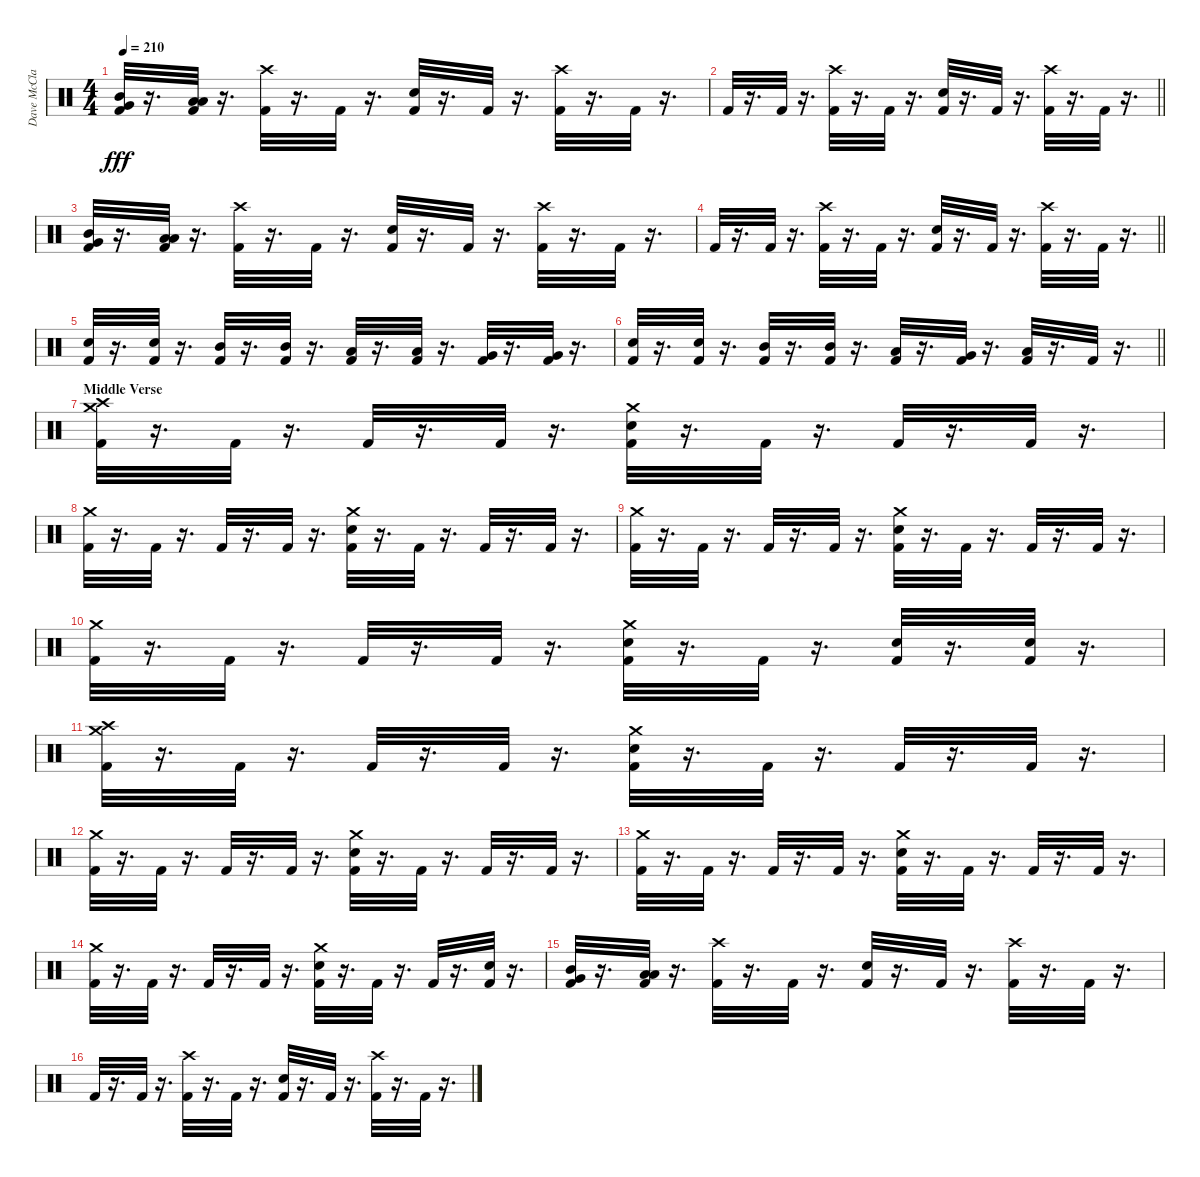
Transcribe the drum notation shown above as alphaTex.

\track ("Dave McClain" "Dave McCla") {instrument percussion}
\staff {score}
\articulation defaults
\ts (4 4)
\tempo 210
\clef neutral
\ks c
("Very Low Tom (hit)" "Mid Tom (hit)" "Kick (hit) 2").32{dy fff} r.16{d} ("Low Tom (hit)" "Low Floor Tom (hit)" "Kick (hit) 2").32 r.16{d} ("Kick (hit) 2" "Crash high (hit)").32 r.16{d} "Kick (hit) 2".32 r.16{d} ("Kick (hit) 2" "Snare (hit) 2").32 r.16{d} "Kick (hit) 2".32 r.16{d} ("Kick (hit) 2" "Crash high (hit)").32 r.16{d} "Kick (hit) 2".32 r.16{d} |
\barLineRight lightlight "Kick (hit) 2".32
r.16{d} "Kick (hit) 2".32 r.16{d} ("Kick (hit) 2" "Crash high (hit)").32 r.16{d} "Kick (hit) 2".32 r.16{d} ("Kick (hit) 2" "Snare (hit) 2").32 r.16{d} "Kick (hit) 2".32 r.16{d} ("Kick (hit) 2" "Crash high (hit)").32 r.16{d} "Kick (hit) 2".32 r.16{d} |
("Very Low Tom (hit)" "Mid Tom (hit)" "Kick (hit) 2").32 r.16{d} ("Kick (hit) 2" "Low Tom (hit)" "Low Floor Tom (hit)").32 r.16{d} ("Kick (hit) 2" "Crash high (hit)").32 r.16{d} "Kick (hit) 2".32 r.16{d} ("Kick (hit) 2" "Snare (hit) 2").32 r.16{d} "Kick (hit) 2".32 r.16{d} ("Kick (hit) 2" "Crash high (hit)").32 r.16{d} "Kick (hit) 2".32 r.16{d} |
\barLineRight lightlight "Kick (hit) 2".32
r.16{d} "Kick (hit) 2".32 r.16{d} ("Kick (hit) 2" "Crash high (hit)").32 r.16{d} "Kick (hit) 2".32 r.16{d} ("Kick (hit) 2" "Snare (hit) 2").32 r.16{d} "Kick (hit) 2".32 r.16{d} ("Kick (hit) 2" "Crash high (hit)").32 r.16{d} "Kick (hit) 2".32 r.16{d} |
("Snare (hit) 2" "Kick (hit) 2").32 r.16{d} ("Snare (hit) 2" "Kick (hit) 2").32 r.16{d} ("Mid Tom (hit)" "Kick (hit) 2").32 r.16{d} ("Mid Tom (hit)" "Kick (hit) 2").32 r.16{d} ("Low Tom (hit)" "Kick (hit) 2").32 r.16{d} ("Low Tom (hit)" "Kick (hit) 2").32 r.16{d} ("Very Low Tom (hit)" "Kick (hit) 2").32 r.16{d} ("Very Low Tom (hit)" "Kick (hit) 2").32 r.16{d} |
\barLineRight lightlight
("Snare (hit) 2" "Kick (hit) 2").32 r.16{d} ("Snare (hit) 2" "Kick (hit) 2").32 r.16{d} ("Mid Tom (hit)" "Kick (hit) 2").32 r.16{d} ("Mid Tom (hit)" "Kick (hit) 2").32 r.16{d} ("Low Tom (hit)" "Kick (hit) 2").32 r.16{d} ("Very Low Tom (hit)" "Kick (hit) 2").32 r.16{d} ("Low Floor Tom (hit)" "Kick (hit) 2").32 r.16{d} "Kick (hit) 2".32 r.16{d} |
\section ("" "Middle Verse")
("Crash medium (hit)" "Crash high (hit)" "Kick (hit) 2").32 r.16{d} "Kick (hit) 2".32 r.16{d} "Kick (hit) 2".32 r.16{d} "Kick (hit) 2".32 r.16{d} ("Crash medium (hit)" "Snare (hit) 2" "Kick (hit) 2").32 r.16{d} "Kick (hit) 2".32 r.16{d} "Kick (hit) 2".32 r.16{d} "Kick (hit) 2".32 r.16{d} |
("Crash medium (hit)" "Kick (hit) 2").32 r.16{d} "Kick (hit) 2".32 r.16{d} "Kick (hit) 2".32 r.16{d} "Kick (hit) 2".32 r.16{d} ("Crash medium (hit)" "Snare (hit) 2" "Kick (hit) 2").32 r.16{d} "Kick (hit) 2".32 r.16{d} "Kick (hit) 2".32 r.16{d} "Kick (hit) 2".32 r.16{d} |
("Crash medium (hit)" "Kick (hit) 2").32 r.16{d} "Kick (hit) 2".32 r.16{d} "Kick (hit) 2".32 r.16{d} "Kick (hit) 2".32 r.16{d} ("Crash medium (hit)" "Snare (hit) 2" "Kick (hit) 2").32 r.16{d} "Kick (hit) 2".32 r.16{d} "Kick (hit) 2".32 r.16{d} "Kick (hit) 2".32 r.16{d} |
("Crash medium (hit)" "Kick (hit) 2").32 r.16{d} "Kick (hit) 2".32 r.16{d} "Kick (hit) 2".32 r.16{d} "Kick (hit) 2".32 r.16{d} ("Crash medium (hit)" "Snare (hit) 2" "Kick (hit) 2").32 r.16{d} "Kick (hit) 2".32 r.16{d} ("Snare (hit) 2" "Kick (hit) 2").32 r.16{d} ("Snare (hit) 2" "Kick (hit) 2").32 r.16{d} |
("Crash medium (hit)" "Crash high (hit)" "Kick (hit) 2").32 r.16{d} "Kick (hit) 2".32 r.16{d} "Kick (hit) 2".32 r.16{d} "Kick (hit) 2".32 r.16{d} ("Crash medium (hit)" "Snare (hit) 2" "Kick (hit) 2").32 r.16{d} "Kick (hit) 2".32 r.16{d} "Kick (hit) 2".32 r.16{d} "Kick (hit) 2".32 r.16{d} |
("Crash medium (hit)" "Kick (hit) 2").32 r.16{d} "Kick (hit) 2".32 r.16{d} "Kick (hit) 2".32 r.16{d} "Kick (hit) 2".32 r.16{d} ("Crash medium (hit)" "Snare (hit) 2" "Kick (hit) 2").32 r.16{d} "Kick (hit) 2".32 r.16{d} "Kick (hit) 2".32 r.16{d} "Kick (hit) 2".32 r.16{d} |
("Crash medium (hit)" "Kick (hit) 2").32 r.16{d} "Kick (hit) 2".32 r.16{d} "Kick (hit) 2".32 r.16{d} "Kick (hit) 2".32 r.16{d} ("Crash medium (hit)" "Snare (hit) 2" "Kick (hit) 2").32 r.16{d} "Kick (hit) 2".32 r.16{d} "Kick (hit) 2".32 r.16{d} "Kick (hit) 2".32 r.16{d} |
("Crash medium (hit)" "Kick (hit) 2").32 r.16{d} "Kick (hit) 2".32 r.16{d} "Kick (hit) 2".32 r.16{d} "Kick (hit) 2".32 r.16{d} ("Crash medium (hit)" "Snare (hit) 2" "Kick (hit) 2").32 r.16{d} "Kick (hit) 2".32 r.16{d} "Kick (hit) 2".32 r.16{d} ("Snare (hit) 2" "Kick (hit) 2").32 r.16{d} |
("Very Low Tom (hit)" "Mid Tom (hit)" "Kick (hit) 2").32 r.16{d} ("Kick (hit) 2" "Low Tom (hit)" "Low Floor Tom (hit)").32 r.16{d} ("Kick (hit) 2" "Crash high (hit)").32 r.16{d} "Kick (hit) 2".32 r.16{d} ("Kick (hit) 2" "Snare (hit) 2").32 r.16{d} "Kick (hit) 2".32 r.16{d} ("Kick (hit) 2" "Crash high (hit)").32 r.16{d} "Kick (hit) 2".32 r.16{d} |
"Kick (hit) 2".32 r.16{d} "Kick (hit) 2".32 r.16{d} ("Kick (hit) 2" "Crash high (hit)").32 r.16{d} "Kick (hit) 2".32 r.16{d} ("Kick (hit) 2" "Snare (hit) 2").32 r.16{d} "Kick (hit) 2".32 r.16{d} ("Kick (hit) 2" "Crash high (hit)").32 r.16{d} "Kick (hit) 2".32 r.16{d}
